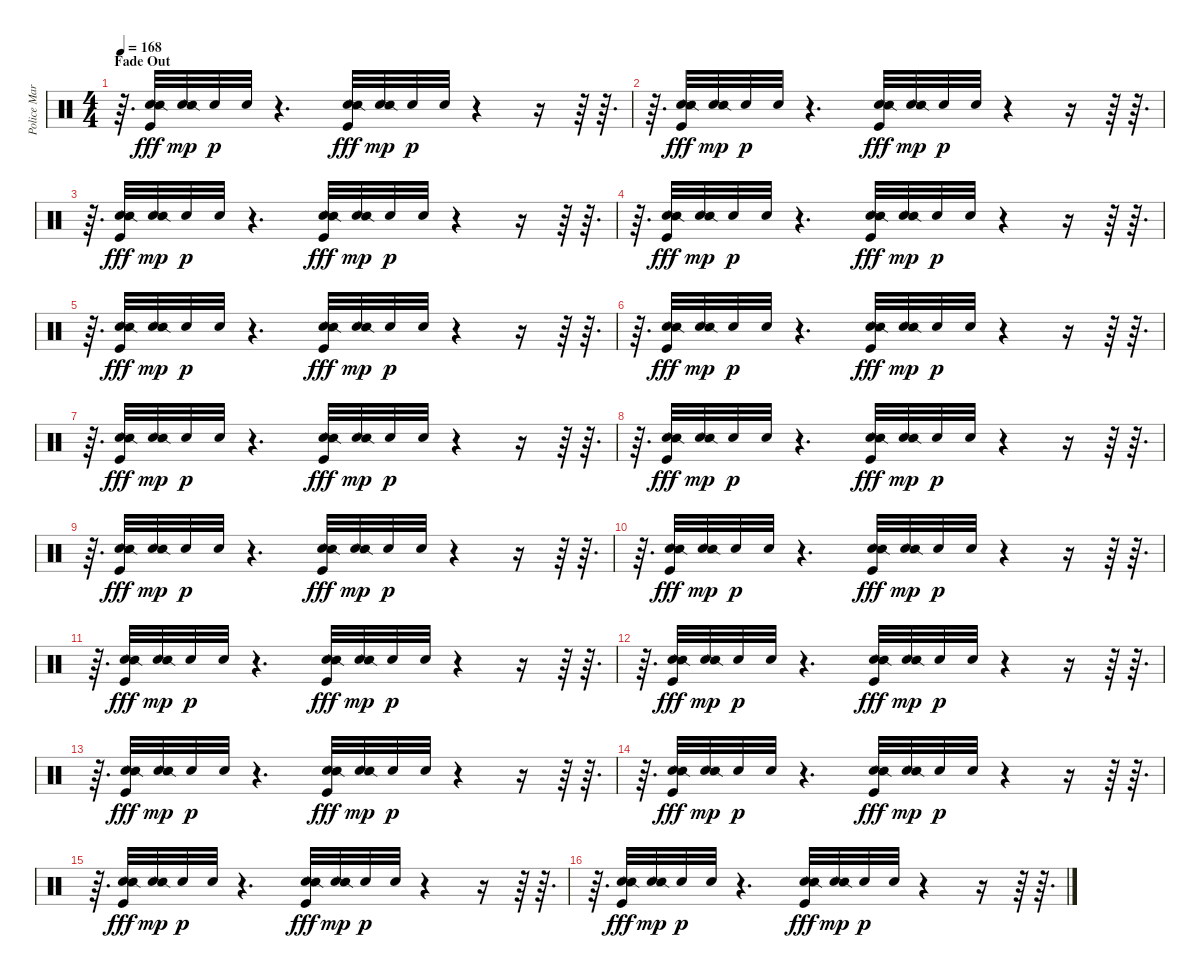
\track ("Police March 2" "Police Mar") {instrument percussion}
\staff {score}
\articulation defaults
\ts (4 4)
\section ("" "Fade Out")
\tempo 168
\clef neutral
\ks c
r.64{d dy p} ("Hand Clap (hit)" "Snare (side stick) 2" "Kick (hit)").32{dy fff} ("Hand Clap (hit)" "Snare (side stick) 2").32{dy mp} "Hand Clap (hit)".32{dy p} "Hand Clap (hit)".32 r.4{d} ("Hand Clap (hit)" "Snare (side stick) 2" "Kick (hit)").32{dy fff} ("Hand Clap (hit)" "Snare (side stick) 2").32{dy mp} "Hand Clap (hit)".32{dy p} "Hand Clap (hit)".32 r.4 r.16 r.64 r.64{d} |
r.64{d} ("Hand Clap (hit)" "Snare (side stick) 2" "Kick (hit)").32{dy fff} ("Hand Clap (hit)" "Snare (side stick) 2").32{dy mp} "Hand Clap (hit)".32{dy p} "Hand Clap (hit)".32 r.4{d} ("Hand Clap (hit)" "Snare (side stick) 2" "Kick (hit)").32{dy fff} ("Hand Clap (hit)" "Snare (side stick) 2").32{dy mp} "Hand Clap (hit)".32{dy p} "Hand Clap (hit)".32 r.4 r.16 r.64 r.64{d} |
r.64{d} ("Hand Clap (hit)" "Snare (side stick) 2" "Kick (hit)").32{dy fff} ("Hand Clap (hit)" "Snare (side stick) 2").32{dy mp} "Hand Clap (hit)".32{dy p} "Hand Clap (hit)".32 r.4{d} ("Hand Clap (hit)" "Snare (side stick) 2" "Kick (hit)").32{dy fff} ("Hand Clap (hit)" "Snare (side stick) 2").32{dy mp} "Hand Clap (hit)".32{dy p} "Hand Clap (hit)".32 r.4 r.16 r.64 r.64{d} |
r.64{d} ("Hand Clap (hit)" "Snare (side stick) 2" "Kick (hit)").32{dy fff} ("Hand Clap (hit)" "Snare (side stick) 2").32{dy mp} "Hand Clap (hit)".32{dy p} "Hand Clap (hit)".32 r.4{d} ("Hand Clap (hit)" "Snare (side stick) 2" "Kick (hit)").32{dy fff} ("Hand Clap (hit)" "Snare (side stick) 2").32{dy mp} "Hand Clap (hit)".32{dy p} "Hand Clap (hit)".32 r.4 r.16 r.64 r.64{d} |
r.64{d} ("Hand Clap (hit)" "Snare (side stick) 2" "Kick (hit)").32{dy fff} ("Hand Clap (hit)" "Snare (side stick) 2").32{dy mp} "Hand Clap (hit)".32{dy p} "Hand Clap (hit)".32 r.4{d} ("Hand Clap (hit)" "Snare (side stick) 2" "Kick (hit)").32{dy fff} ("Hand Clap (hit)" "Snare (side stick) 2").32{dy mp} "Hand Clap (hit)".32{dy p} "Hand Clap (hit)".32 r.4 r.16 r.64 r.64{d} |
r.64{d} ("Hand Clap (hit)" "Snare (side stick) 2" "Kick (hit)").32{dy fff} ("Hand Clap (hit)" "Snare (side stick) 2").32{dy mp} "Hand Clap (hit)".32{dy p} "Hand Clap (hit)".32 r.4{d} ("Hand Clap (hit)" "Snare (side stick) 2" "Kick (hit)").32{dy fff} ("Hand Clap (hit)" "Snare (side stick) 2").32{dy mp} "Hand Clap (hit)".32{dy p} "Hand Clap (hit)".32 r.4 r.16 r.64 r.64{d} |
r.64{d} ("Hand Clap (hit)" "Snare (side stick) 2" "Kick (hit)").32{dy fff} ("Hand Clap (hit)" "Snare (side stick) 2").32{dy mp} "Hand Clap (hit)".32{dy p} "Hand Clap (hit)".32 r.4{d} ("Hand Clap (hit)" "Snare (side stick) 2" "Kick (hit)").32{dy fff} ("Hand Clap (hit)" "Snare (side stick) 2").32{dy mp} "Hand Clap (hit)".32{dy p} "Hand Clap (hit)".32 r.4 r.16 r.64 r.64{d} |
r.64{d} ("Hand Clap (hit)" "Snare (side stick) 2" "Kick (hit)").32{dy fff} ("Hand Clap (hit)" "Snare (side stick) 2").32{dy mp} "Hand Clap (hit)".32{dy p} "Hand Clap (hit)".32 r.4{d} ("Hand Clap (hit)" "Snare (side stick) 2" "Kick (hit)").32{dy fff} ("Hand Clap (hit)" "Snare (side stick) 2").32{dy mp} "Hand Clap (hit)".32{dy p} "Hand Clap (hit)".32 r.4 r.16 r.64 r.64{d} |
r.64{d} ("Hand Clap (hit)" "Snare (side stick) 2" "Kick (hit)").32{dy fff} ("Hand Clap (hit)" "Snare (side stick) 2").32{dy mp} "Hand Clap (hit)".32{dy p} "Hand Clap (hit)".32 r.4{d} ("Hand Clap (hit)" "Snare (side stick) 2" "Kick (hit)").32{dy fff} ("Hand Clap (hit)" "Snare (side stick) 2").32{dy mp} "Hand Clap (hit)".32{dy p} "Hand Clap (hit)".32 r.4 r.16 r.64 r.64{d} |
r.64{d} ("Hand Clap (hit)" "Snare (side stick) 2" "Kick (hit)").32{dy fff} ("Hand Clap (hit)" "Snare (side stick) 2").32{dy mp} "Hand Clap (hit)".32{dy p} "Hand Clap (hit)".32 r.4{d} ("Hand Clap (hit)" "Snare (side stick) 2" "Kick (hit)").32{dy fff} ("Hand Clap (hit)" "Snare (side stick) 2").32{dy mp} "Hand Clap (hit)".32{dy p} "Hand Clap (hit)".32 r.4 r.16 r.64 r.64{d} |
r.64{d} ("Hand Clap (hit)" "Snare (side stick) 2" "Kick (hit)").32{dy fff} ("Hand Clap (hit)" "Snare (side stick) 2").32{dy mp} "Hand Clap (hit)".32{dy p} "Hand Clap (hit)".32 r.4{d} ("Hand Clap (hit)" "Snare (side stick) 2" "Kick (hit)").32{dy fff} ("Hand Clap (hit)" "Snare (side stick) 2").32{dy mp} "Hand Clap (hit)".32{dy p} "Hand Clap (hit)".32 r.4 r.16 r.64 r.64{d} |
r.64{d} ("Hand Clap (hit)" "Snare (side stick) 2" "Kick (hit)").32{dy fff} ("Hand Clap (hit)" "Snare (side stick) 2").32{dy mp} "Hand Clap (hit)".32{dy p} "Hand Clap (hit)".32 r.4{d} ("Hand Clap (hit)" "Snare (side stick) 2" "Kick (hit)").32{dy fff} ("Hand Clap (hit)" "Snare (side stick) 2").32{dy mp} "Hand Clap (hit)".32{dy p} "Hand Clap (hit)".32 r.4 r.16 r.64 r.64{d} |
r.64{d} ("Hand Clap (hit)" "Snare (side stick) 2" "Kick (hit)").32{dy fff} ("Hand Clap (hit)" "Snare (side stick) 2").32{dy mp} "Hand Clap (hit)".32{dy p} "Hand Clap (hit)".32 r.4{d} ("Hand Clap (hit)" "Snare (side stick) 2" "Kick (hit)").32{dy fff} ("Hand Clap (hit)" "Snare (side stick) 2").32{dy mp} "Hand Clap (hit)".32{dy p} "Hand Clap (hit)".32 r.4 r.16 r.64 r.64{d} |
r.64{d} ("Hand Clap (hit)" "Snare (side stick) 2" "Kick (hit)").32{dy fff} ("Hand Clap (hit)" "Snare (side stick) 2").32{dy mp} "Hand Clap (hit)".32{dy p} "Hand Clap (hit)".32 r.4{d} ("Hand Clap (hit)" "Snare (side stick) 2" "Kick (hit)").32{dy fff} ("Hand Clap (hit)" "Snare (side stick) 2").32{dy mp} "Hand Clap (hit)".32{dy p} "Hand Clap (hit)".32 r.4 r.16 r.64 r.64{d} |
r.64{d} ("Hand Clap (hit)" "Snare (side stick) 2" "Kick (hit)").32{dy fff} ("Hand Clap (hit)" "Snare (side stick) 2").32{dy mp} "Hand Clap (hit)".32{dy p} "Hand Clap (hit)".32 r.4{d} ("Hand Clap (hit)" "Snare (side stick) 2" "Kick (hit)").32{dy fff} ("Hand Clap (hit)" "Snare (side stick) 2").32{dy mp} "Hand Clap (hit)".32{dy p} "Hand Clap (hit)".32 r.4 r.16 r.64 r.64{d} |
r.64{d} ("Hand Clap (hit)" "Snare (side stick) 2" "Kick (hit)").32{dy fff} ("Hand Clap (hit)" "Snare (side stick) 2").32{dy mp} "Hand Clap (hit)".32{dy p} "Hand Clap (hit)".32 r.4{d} ("Hand Clap (hit)" "Snare (side stick) 2" "Kick (hit)").32{dy fff} ("Hand Clap (hit)" "Snare (side stick) 2").32{dy mp} "Hand Clap (hit)".32{dy p} "Hand Clap (hit)".32 r.4 r.16 r.64 r.64{d}
